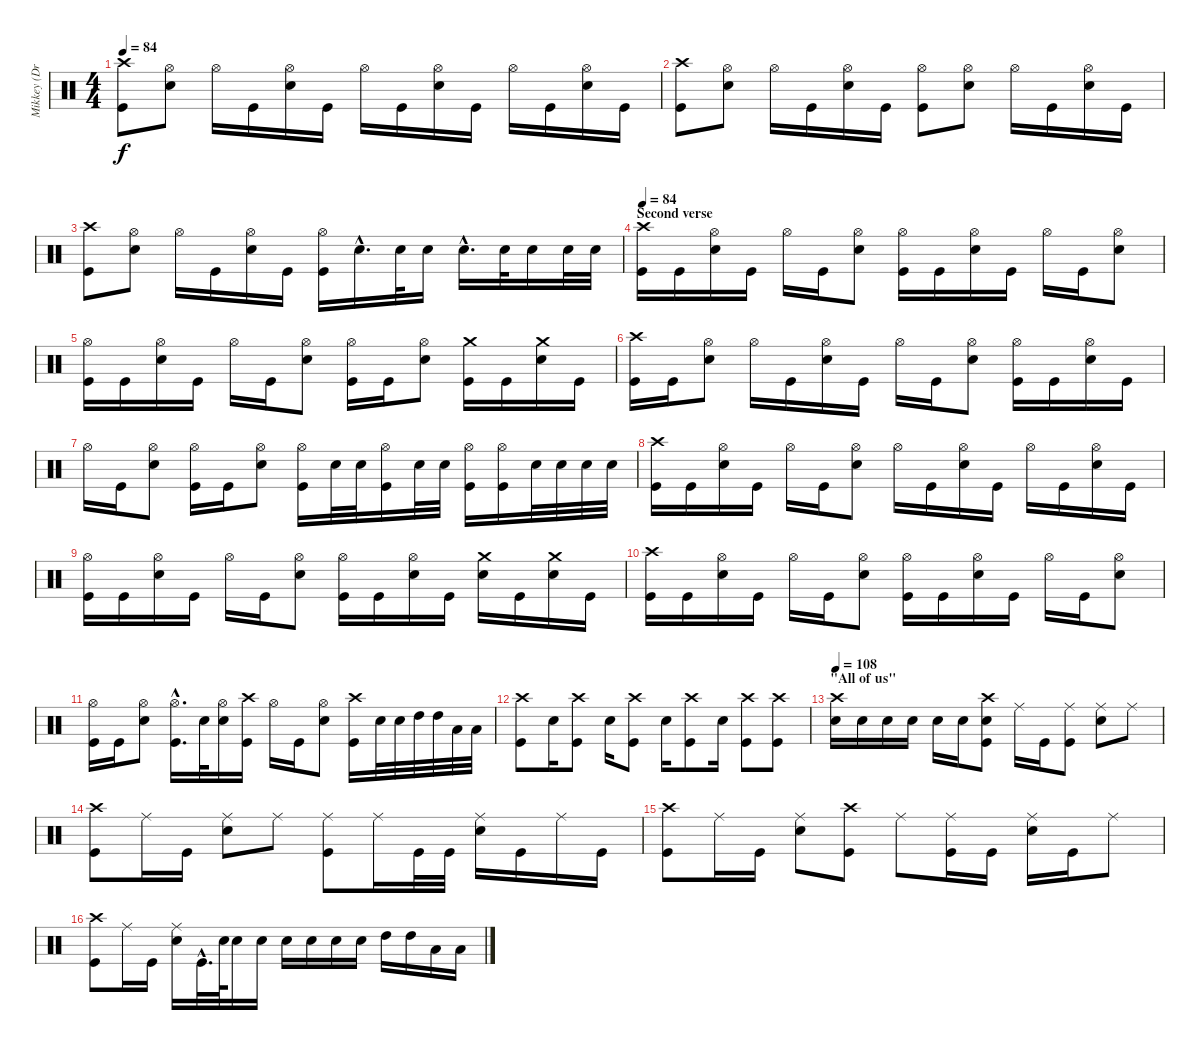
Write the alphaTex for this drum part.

\track ("Mikkey (Drums)" "Mikkey (Dr") {instrument percussion}
\staff {score}
\articulation defaults
\ts (4 4)
\tempo 84
\clef neutral
\ks c
("Crash high (hit)" "Kick (hit)").8{dy f} ("Hi-Hat (open)" "Electric Snare (hit)").8 "Hi-Hat (open)".16 "Kick (hit)".16 ("Hi-Hat (open)" "Electric Snare (hit)").16 "Kick (hit)".16 "Hi-Hat (open)".16 "Kick (hit)".16 ("Hi-Hat (open)" "Electric Snare (hit)").16 "Kick (hit)".16 "Hi-Hat (open)".16 "Kick (hit)".16 ("Hi-Hat (open)" "Electric Snare (hit)").16 "Kick (hit)".16 |
("Crash high (hit)" "Kick (hit)").8 ("Hi-Hat (open)" "Electric Snare (hit)").8 "Hi-Hat (open)".16 "Kick (hit)".16 ("Hi-Hat (open)" "Electric Snare (hit)").16 "Kick (hit)".16 ("Hi-Hat (open)" "Kick (hit)").8 ("Hi-Hat (open)" "Electric Snare (hit)").8 "Hi-Hat (open)".16 "Kick (hit)".16 ("Hi-Hat (open)" "Electric Snare (hit)").16 "Kick (hit)".16 |
("Crash high (hit)" "Kick (hit)").8 ("Hi-Hat (open)" "Electric Snare (hit)").8 "Hi-Hat (open)".16 "Kick (hit)".16 ("Hi-Hat (open)" "Electric Snare (hit)").16 "Kick (hit)".16 ("Hi-Hat (open)" "Kick (hit)").16 "Electric Snare (hit)"{hac}.16{d} "Electric Snare (hit)".32 "Electric Snare (hit)".16 "Electric Snare (hit)"{hac}.16{d} "Electric Snare (hit)".32 "Electric Snare (hit)".16 "Electric Snare (hit)".32 "Electric Snare (hit)".32 |
\section ("" "Second verse")
\tempo 84
("Crash high (hit)" "Kick (hit)").16 "Kick (hit)".16 ("Hi-Hat (open)" "Electric Snare (hit)").16 "Kick (hit)".16 "Hi-Hat (open)".16 "Kick (hit)".16 ("Hi-Hat (open)" "Electric Snare (hit)").8 ("Hi-Hat (open)" "Kick (hit)").16 "Kick (hit)".16 ("Hi-Hat (open)" "Electric Snare (hit)").16 "Kick (hit)".16 "Hi-Hat (open)".16 "Kick (hit)".16 ("Hi-Hat (open)" "Electric Snare (hit)").8 |
("Hi-Hat (open)" "Kick (hit)").16 "Kick (hit)".16 ("Hi-Hat (open)" "Electric Snare (hit)").16 "Kick (hit)".16 "Hi-Hat (open)".16 "Kick (hit)".16 ("Hi-Hat (open)" "Electric Snare (hit)").8 ("Hi-Hat (open)" "Kick (hit)").16 "Kick (hit)".16 ("Hi-Hat (open)" "Electric Snare (hit)").8 ("Crash medium (hit)" "Kick (hit)").16 "Kick (hit)".16 ("Crash medium (hit)" "Electric Snare (hit)").16 "Kick (hit)".16 |
("Crash high (hit)" "Kick (hit)").16 "Kick (hit)".16 ("Hi-Hat (open)" "Electric Snare (hit)").8 "Hi-Hat (open)".16 "Kick (hit)".16 ("Hi-Hat (open)" "Electric Snare (hit)").16 "Kick (hit)".16 "Hi-Hat (open)".16 "Kick (hit)".16 ("Hi-Hat (open)" "Electric Snare (hit)").8 ("Hi-Hat (open)" "Kick (hit)").16 "Kick (hit)".16 ("Hi-Hat (open)" "Electric Snare (hit)").16 "Kick (hit)".16 |
"Hi-Hat (open)".16 "Kick (hit)".16 ("Hi-Hat (open)" "Electric Snare (hit)").8 ("Hi-Hat (open)" "Kick (hit)").16 "Kick (hit)".16 ("Hi-Hat (open)" "Electric Snare (hit)").8 ("Hi-Hat (open)" "Kick (hit)").16 "Electric Snare (hit)".32 "Electric Snare (hit)".32 ("Hi-Hat (open)" "Kick (hit)").16 "Electric Snare (hit)".32 "Electric Snare (hit)".32 ("Hi-Hat (open)" "Kick (hit)").16 ("Hi-Hat (open)" "Kick (hit)").16 "Electric Snare (hit)".32 "Electric Snare (hit)".32 "Electric Snare (hit)".32 "Electric Snare (hit)".32 |
("Crash high (hit)" "Kick (hit)").16 "Kick (hit)".16 ("Hi-Hat (open)" "Electric Snare (hit)").16 "Kick (hit)".16 "Hi-Hat (open)".16 "Kick (hit)".16 ("Hi-Hat (open)" "Electric Snare (hit)").8 "Hi-Hat (open)".16 "Kick (hit)".16 ("Hi-Hat (open)" "Electric Snare (hit)").16 "Kick (hit)".16 "Hi-Hat (open)".16 "Kick (hit)".16 ("Hi-Hat (open)" "Electric Snare (hit)").16 "Kick (hit)".16 |
("Hi-Hat (open)" "Kick (hit)").16 "Kick (hit)".16 ("Hi-Hat (open)" "Electric Snare (hit)").16 "Kick (hit)".16 "Hi-Hat (open)".16 "Kick (hit)".16 ("Hi-Hat (open)" "Electric Snare (hit)").8 ("Hi-Hat (open)" "Kick (hit)").16 "Kick (hit)".16 ("Hi-Hat (open)" "Electric Snare (hit)").16 "Kick (hit)".16 ("Crash medium (hit)" "Electric Snare (hit)").16 "Kick (hit)".16 ("Crash medium (hit)" "Electric Snare (hit)").16 "Kick (hit)".16 |
("Crash high (hit)" "Kick (hit)").16 "Kick (hit)".16 ("Hi-Hat (open)" "Electric Snare (hit)").16 "Kick (hit)".16 "Hi-Hat (open)".16 "Kick (hit)".16 ("Hi-Hat (open)" "Electric Snare (hit)").8 ("Hi-Hat (open)" "Kick (hit)").16 "Kick (hit)".16 ("Hi-Hat (open)" "Electric Snare (hit)").16 "Kick (hit)".16 "Hi-Hat (open)".16 "Kick (hit)".16 ("Hi-Hat (open)" "Electric Snare (hit)").8 |
("Hi-Hat (open)" "Kick (hit)").16 "Kick (hit)".16 ("Hi-Hat (open)" "Electric Snare (hit)").8 ("Hi-Hat (open)"{hac} "Kick (hit)"{hac}).16{d} "Electric Snare (hit)".32 ("Hi-Hat (open)" "Electric Snare (hit)").16 ("Crash high (hit)" "Kick (hit)").16 "Hi-Hat (open)".16 "Kick (hit)".16 ("Hi-Hat (open)" "Electric Snare (hit)").8 ("Crash high (hit)" "Kick (hit)").16 "Electric Snare (hit)".32 "Electric Snare (hit)".32 "High Tom (hit)".32 "High Tom (hit)".32 "Low Tom (hit)".32 "Low Tom (hit)".32 |
("Crash high (hit)" "Kick (hit)").8 "Electric Snare (hit)".16 ("Crash high (hit)" "Kick (hit)").8 "Electric Snare (hit)".16 ("Crash high (hit)" "Kick (hit)").8 "Electric Snare (hit)".16 ("Crash high (hit)" "Kick (hit)").8 "Electric Snare (hit)".16 ("Crash high (hit)" "Kick (hit)").8 ("Crash high (hit)" "Kick (hit)").8 |
\section ("" "\"All of us\"")
\tempo 108
("Crash high (hit)" "Electric Snare (hit)").16 "Electric Snare (hit)".16 "Electric Snare (hit)".16 "Electric Snare (hit)".16 "Electric Snare (hit)".16 "Electric Snare (hit)".16 ("Crash high (hit)" "Electric Snare (hit)" "Kick (hit)").8 "Ride (middle)".16 "Kick (hit)".16 ("Ride (middle)" "Kick (hit)").8 ("Ride (middle)" "Electric Snare (hit)").8 "Ride (middle)".8 |
("Crash high (hit)" "Kick (hit)").8 "Ride (middle)".16 "Kick (hit)".16 ("Ride (middle)" "Electric Snare (hit)").8 "Ride (middle)".8 ("Ride (middle)" "Kick (hit)").8 "Ride (middle)".16 "Kick (hit)".32 "Kick (hit)".32 ("Ride (middle)" "Electric Snare (hit)").16 "Kick (hit)".16 "Ride (middle)".16 "Kick (hit)".16 |
("Crash high (hit)" "Kick (hit)").8 "Ride (middle)".16 "Kick (hit)".16 ("Ride (middle)" "Electric Snare (hit)").8 ("Crash high (hit)" "Kick (hit)").8 "Ride (middle)".8 ("Ride (middle)" "Kick (hit)").16 "Kick (hit)".16 ("Ride (middle)" "Electric Snare (hit)").16 "Kick (hit)".16 "Ride (middle)".8 |
("Crash high (hit)" "Kick (hit)").8 "Ride (middle)".16 "Kick (hit)".16 ("Ride (middle)" "Electric Snare (hit)").16 "Kick (hit)"{hac}.32{d} "Electric Snare (hit)".64 "Electric Snare (hit)".16 "Electric Snare (hit)".16 "Electric Snare (hit)".16 "Electric Snare (hit)".16 "Electric Snare (hit)".16 "Electric Snare (hit)".16 "High Tom (hit)".16 "High Tom (hit)".16 "Low Tom (hit)".16 "Low Tom (hit)".16
